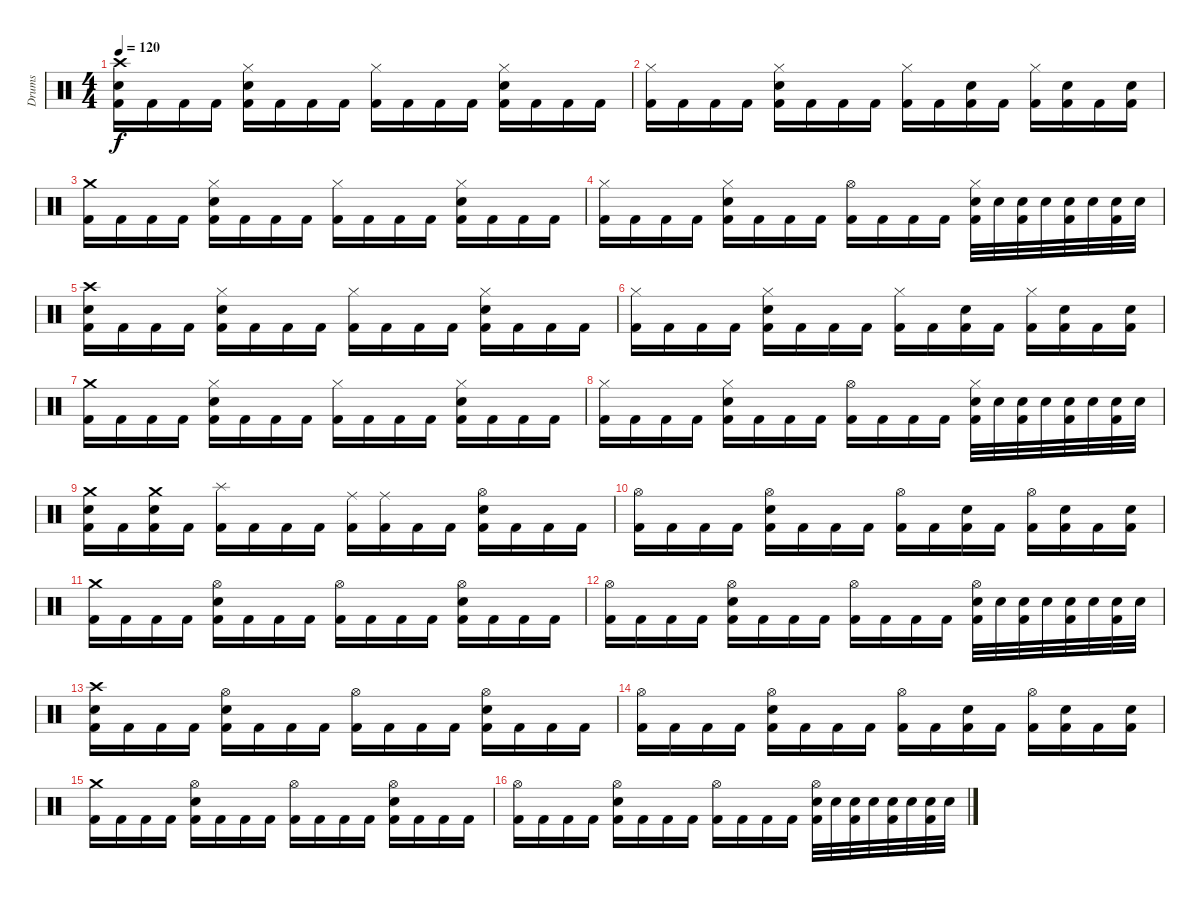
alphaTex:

\track ("Drums" "Drums") {instrument percussion}
\staff {score}
\articulation defaults
\ts (4 4)
\tempo 120
\clef neutral
\ks c
("Crash high (hit)" "Snare (hit) 2" "Kick (hit) 2").16{dy f} "Kick (hit) 2".16 "Kick (hit) 2".16 "Kick (hit) 2".16 ("Hi-Hat (closed)" "Snare (hit) 2" "Kick (hit) 2").16 "Kick (hit) 2".16 "Kick (hit) 2".16 "Kick (hit) 2".16 ("Hi-Hat (closed)" "Kick (hit) 2").16 "Kick (hit) 2".16 "Kick (hit) 2".16 "Kick (hit) 2".16 ("Hi-Hat (closed)" "Snare (hit) 2" "Kick (hit) 2").16 "Kick (hit) 2".16 "Kick (hit) 2".16 "Kick (hit) 2".16 |
("Hi-Hat (closed)" "Kick (hit) 2").16 "Kick (hit) 2".16 "Kick (hit) 2".16 "Kick (hit) 2".16 ("Hi-Hat (closed)" "Snare (hit) 2" "Kick (hit) 2").16 "Kick (hit) 2".16 "Kick (hit) 2".16 "Kick (hit) 2".16 ("Hi-Hat (closed)" "Kick (hit) 2").16 "Kick (hit) 2".16 ("Snare (hit) 2" "Kick (hit) 2").16 "Kick (hit) 2".16 ("Hi-Hat (closed)" "Kick (hit) 2").16 ("Snare (hit) 2" "Kick (hit) 2").16 "Kick (hit) 2".16 ("Snare (hit) 2" "Kick (hit) 2").16 |
("Crash medium (hit)" "Kick (hit) 2").16 "Kick (hit) 2".16 "Kick (hit) 2".16 "Kick (hit) 2".16 ("Hi-Hat (closed)" "Snare (hit) 2" "Kick (hit) 2").16 "Kick (hit) 2".16 "Kick (hit) 2".16 "Kick (hit) 2".16 ("Hi-Hat (closed)" "Kick (hit) 2").16 "Kick (hit) 2".16 "Kick (hit) 2".16 "Kick (hit) 2".16 ("Hi-Hat (closed)" "Snare (hit) 2" "Kick (hit) 2").16 "Kick (hit) 2".16 "Kick (hit) 2".16 "Kick (hit) 2".16 |
("Hi-Hat (closed)" "Kick (hit) 2").16 "Kick (hit) 2".16 "Kick (hit) 2".16 "Kick (hit) 2".16 ("Hi-Hat (closed)" "Snare (hit) 2" "Kick (hit) 2").16 "Kick (hit) 2".16 "Kick (hit) 2".16 "Kick (hit) 2".16 ("Hi-Hat (open)" "Kick (hit) 2").16 "Kick (hit) 2".16 "Kick (hit) 2".16 "Kick (hit) 2".16 ("Hi-Hat (closed)" "Snare (hit) 2" "Kick (hit) 2").32 "Snare (hit) 2".32 ("Snare (hit) 2" "Kick (hit) 2").32 "Snare (hit) 2".32 ("Snare (hit) 2" "Kick (hit) 2").32 "Snare (hit) 2".32 ("Snare (hit) 2" "Kick (hit) 2").32 "Snare (hit) 2".32 |
("Crash high (hit)" "Snare (hit) 2" "Kick (hit) 2").16 "Kick (hit) 2".16 "Kick (hit) 2".16 "Kick (hit) 2".16 ("Hi-Hat (closed)" "Snare (hit) 2" "Kick (hit) 2").16 "Kick (hit) 2".16 "Kick (hit) 2".16 "Kick (hit) 2".16 ("Hi-Hat (closed)" "Kick (hit) 2").16 "Kick (hit) 2".16 "Kick (hit) 2".16 "Kick (hit) 2".16 ("Hi-Hat (closed)" "Snare (hit) 2" "Kick (hit) 2").16 "Kick (hit) 2".16 "Kick (hit) 2".16 "Kick (hit) 2".16 |
("Hi-Hat (closed)" "Kick (hit) 2").16 "Kick (hit) 2".16 "Kick (hit) 2".16 "Kick (hit) 2".16 ("Hi-Hat (closed)" "Snare (hit) 2" "Kick (hit) 2").16 "Kick (hit) 2".16 "Kick (hit) 2".16 "Kick (hit) 2".16 ("Hi-Hat (closed)" "Kick (hit) 2").16 "Kick (hit) 2".16 ("Snare (hit) 2" "Kick (hit) 2").16 "Kick (hit) 2".16 ("Hi-Hat (closed)" "Kick (hit) 2").16 ("Snare (hit) 2" "Kick (hit) 2").16 "Kick (hit) 2".16 ("Snare (hit) 2" "Kick (hit) 2").16 |
("Crash medium (hit)" "Kick (hit) 2").16 "Kick (hit) 2".16 "Kick (hit) 2".16 "Kick (hit) 2".16 ("Hi-Hat (closed)" "Snare (hit) 2" "Kick (hit) 2").16 "Kick (hit) 2".16 "Kick (hit) 2".16 "Kick (hit) 2".16 ("Hi-Hat (closed)" "Kick (hit) 2").16 "Kick (hit) 2".16 "Kick (hit) 2".16 "Kick (hit) 2".16 ("Hi-Hat (closed)" "Snare (hit) 2" "Kick (hit) 2").16 "Kick (hit) 2".16 "Kick (hit) 2".16 "Kick (hit) 2".16 |
("Hi-Hat (closed)" "Kick (hit) 2").16 "Kick (hit) 2".16 "Kick (hit) 2".16 "Kick (hit) 2".16 ("Hi-Hat (closed)" "Snare (hit) 2" "Kick (hit) 2").16 "Kick (hit) 2".16 "Kick (hit) 2".16 "Kick (hit) 2".16 ("Hi-Hat (open)" "Kick (hit) 2").16 "Kick (hit) 2".16 "Kick (hit) 2".16 "Kick (hit) 2".16 ("Hi-Hat (closed)" "Snare (hit) 2" "Kick (hit) 2").32 "Snare (hit) 2".32 ("Snare (hit) 2" "Kick (hit) 2").32 "Snare (hit) 2".32 ("Snare (hit) 2" "Kick (hit) 2").32 "Snare (hit) 2".32 ("Snare (hit) 2" "Kick (hit) 2").32 "Snare (hit) 2".32 |
("Crash medium (hit)" "Snare (hit) 2" "Kick (hit) 2").16 "Kick (hit) 2".16 ("Crash medium (hit)" "Snare (hit) 2" "Kick (hit) 2").16 "Kick (hit) 2".16 ("Splash (hit)" "Kick (hit) 2").16 "Kick (hit) 2".16 "Kick (hit) 2".16 "Kick (hit) 2".16 ("Ride (middle)" "Kick (hit) 2").16 ("Ride (middle)" "Kick (hit) 2").16 "Kick (hit) 2".16 "Kick (hit) 2".16 ("Hi-Hat (open)" "Snare (hit) 2" "Kick (hit) 2").16 "Kick (hit) 2".16 "Kick (hit) 2".16 "Kick (hit) 2".16 |
("Hi-Hat (open)" "Kick (hit) 2").16 "Kick (hit) 2".16 "Kick (hit) 2".16 "Kick (hit) 2".16 ("Hi-Hat (open)" "Snare (hit) 2" "Kick (hit) 2").16 "Kick (hit) 2".16 "Kick (hit) 2".16 "Kick (hit) 2".16 ("Hi-Hat (open)" "Kick (hit) 2").16 "Kick (hit) 2".16 ("Snare (hit) 2" "Kick (hit) 2").16 "Kick (hit) 2".16 ("Hi-Hat (open)" "Kick (hit) 2").16 ("Snare (hit) 2" "Kick (hit) 2").16 "Kick (hit) 2".16 ("Snare (hit) 2" "Kick (hit) 2").16 |
("Crash medium (hit)" "Kick (hit) 2").16 "Kick (hit) 2".16 "Kick (hit) 2".16 "Kick (hit) 2".16 ("Hi-Hat (open)" "Snare (hit) 2" "Kick (hit) 2").16 "Kick (hit) 2".16 "Kick (hit) 2".16 "Kick (hit) 2".16 ("Hi-Hat (open)" "Kick (hit) 2").16 "Kick (hit) 2".16 "Kick (hit) 2".16 "Kick (hit) 2".16 ("Hi-Hat (open)" "Snare (hit) 2" "Kick (hit) 2").16 "Kick (hit) 2".16 "Kick (hit) 2".16 "Kick (hit) 2".16 |
("Hi-Hat (open)" "Kick (hit) 2").16 "Kick (hit) 2".16 "Kick (hit) 2".16 "Kick (hit) 2".16 ("Hi-Hat (open)" "Snare (hit) 2" "Kick (hit) 2").16 "Kick (hit) 2".16 "Kick (hit) 2".16 "Kick (hit) 2".16 ("Hi-Hat (open)" "Kick (hit) 2").16 "Kick (hit) 2".16 "Kick (hit) 2".16 "Kick (hit) 2".16 ("Hi-Hat (open)" "Snare (hit) 2" "Kick (hit) 2").32 "Snare (hit) 2".32 ("Snare (hit) 2" "Kick (hit) 2").32 "Snare (hit) 2".32 ("Snare (hit) 2" "Kick (hit) 2").32 "Snare (hit) 2".32 ("Snare (hit) 2" "Kick (hit) 2").32 "Snare (hit) 2".32 |
("Crash high (hit)" "Snare (hit) 2" "Kick (hit) 2").16 "Kick (hit) 2".16 "Kick (hit) 2".16 "Kick (hit) 2".16 ("Hi-Hat (open)" "Snare (hit) 2" "Kick (hit) 2").16 "Kick (hit) 2".16 "Kick (hit) 2".16 "Kick (hit) 2".16 ("Hi-Hat (open)" "Kick (hit) 2").16 "Kick (hit) 2".16 "Kick (hit) 2".16 "Kick (hit) 2".16 ("Hi-Hat (open)" "Snare (hit) 2" "Kick (hit) 2").16 "Kick (hit) 2".16 "Kick (hit) 2".16 "Kick (hit) 2".16 |
("Hi-Hat (open)" "Kick (hit) 2").16 "Kick (hit) 2".16 "Kick (hit) 2".16 "Kick (hit) 2".16 ("Hi-Hat (open)" "Snare (hit) 2" "Kick (hit) 2").16 "Kick (hit) 2".16 "Kick (hit) 2".16 "Kick (hit) 2".16 ("Hi-Hat (open)" "Kick (hit) 2").16 "Kick (hit) 2".16 ("Snare (hit) 2" "Kick (hit) 2").16 "Kick (hit) 2".16 ("Hi-Hat (open)" "Kick (hit) 2").16 ("Snare (hit) 2" "Kick (hit) 2").16 "Kick (hit) 2".16 ("Snare (hit) 2" "Kick (hit) 2").16 |
("Crash medium (hit)" "Kick (hit) 2").16 "Kick (hit) 2".16 "Kick (hit) 2".16 "Kick (hit) 2".16 ("Hi-Hat (open)" "Snare (hit) 2" "Kick (hit) 2").16 "Kick (hit) 2".16 "Kick (hit) 2".16 "Kick (hit) 2".16 ("Hi-Hat (open)" "Kick (hit) 2").16 "Kick (hit) 2".16 "Kick (hit) 2".16 "Kick (hit) 2".16 ("Hi-Hat (open)" "Snare (hit) 2" "Kick (hit) 2").16 "Kick (hit) 2".16 "Kick (hit) 2".16 "Kick (hit) 2".16 |
("Hi-Hat (open)" "Kick (hit) 2").16 "Kick (hit) 2".16 "Kick (hit) 2".16 "Kick (hit) 2".16 ("Hi-Hat (open)" "Snare (hit) 2" "Kick (hit) 2").16 "Kick (hit) 2".16 "Kick (hit) 2".16 "Kick (hit) 2".16 ("Hi-Hat (open)" "Kick (hit) 2").16 "Kick (hit) 2".16 "Kick (hit) 2".16 "Kick (hit) 2".16 ("Hi-Hat (open)" "Snare (hit) 2" "Kick (hit) 2").32 "Snare (hit) 2".32 ("Snare (hit) 2" "Kick (hit) 2").32 "Snare (hit) 2".32 ("Snare (hit) 2" "Kick (hit) 2").32 "Snare (hit) 2".32 ("Snare (hit) 2" "Kick (hit) 2").32 "Snare (hit) 2".32
